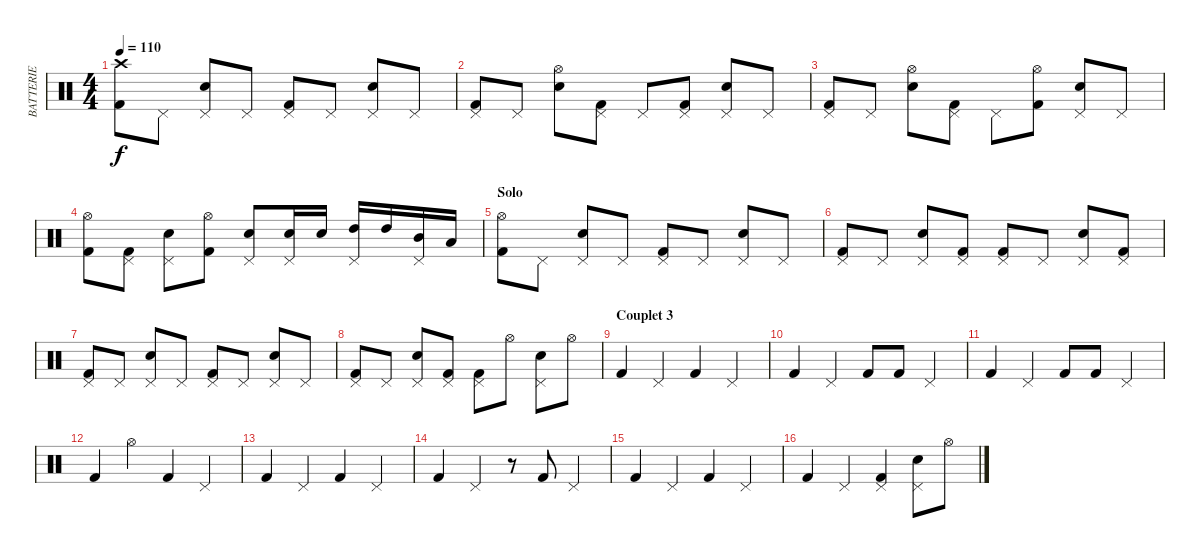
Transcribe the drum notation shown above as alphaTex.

\track ("BATTERIE" "BATTERIE") {instrument percussion}
\staff {score}
\articulation defaults
\ts (4 4)
\tempo 110
\clef neutral
\ks c
("Crash high (hit)" "Kick (hit) 2").8{dy f} "Pedal Hi-Hat (hit)".8 ("Pedal Hi-Hat (hit)" "Snare (hit) 2").8 "Pedal Hi-Hat (hit)".8 ("Pedal Hi-Hat (hit)" "Kick (hit) 2").8 "Pedal Hi-Hat (hit)".8 ("Pedal Hi-Hat (hit)" "Snare (hit) 2").8 "Pedal Hi-Hat (hit)".8 |
("Pedal Hi-Hat (hit)" "Kick (hit) 2").8 "Pedal Hi-Hat (hit)".8 ("Hi-Hat (open)" "Snare (hit) 2").8 ("Pedal Hi-Hat (hit)" "Kick (hit) 2").8 "Pedal Hi-Hat (hit)".8 ("Pedal Hi-Hat (hit)" "Kick (hit) 2").8 ("Pedal Hi-Hat (hit)" "Snare (hit) 2").8 "Pedal Hi-Hat (hit)".8 |
("Pedal Hi-Hat (hit)" "Kick (hit) 2").8 "Pedal Hi-Hat (hit)".8 ("Hi-Hat (open)" "Snare (hit) 2").8 ("Pedal Hi-Hat (hit)" "Kick (hit) 2").8 "Pedal Hi-Hat (hit)".8 ("Hi-Hat (open)" "Kick (hit) 2").8 ("Pedal Hi-Hat (hit)" "Snare (hit) 2").8 "Pedal Hi-Hat (hit)".8 |
("Hi-Hat (open)" "Kick (hit) 2").8 ("Pedal Hi-Hat (hit)" "Kick (hit) 2").8 ("Pedal Hi-Hat (hit)" "Snare (hit) 2").8 ("Hi-Hat (open)" "Kick (hit) 2").8 ("Pedal Hi-Hat (hit)" "Snare (hit) 2").8 ("Pedal Hi-Hat (hit)" "Snare (hit) 2").16 "Snare (hit) 2".16 ("Pedal Hi-Hat (hit)" "High Tom (hit)").16 "High Tom (hit)".16 ("Pedal Hi-Hat (hit)" "Mid Tom (hit)").16 "Low Tom (hit)".16 |
\section ("" "Solo")
("Hi-Hat (open)" "Kick (hit) 2").8 "Pedal Hi-Hat (hit)".8 ("Pedal Hi-Hat (hit)" "Snare (hit) 2").8 "Pedal Hi-Hat (hit)".8 ("Pedal Hi-Hat (hit)" "Kick (hit) 2").8 "Pedal Hi-Hat (hit)".8 ("Pedal Hi-Hat (hit)" "Snare (hit) 2").8 "Pedal Hi-Hat (hit)".8 |
("Pedal Hi-Hat (hit)" "Kick (hit) 2").8 "Pedal Hi-Hat (hit)".8 ("Pedal Hi-Hat (hit)" "Snare (hit) 2").8 ("Pedal Hi-Hat (hit)" "Kick (hit) 2").8 ("Pedal Hi-Hat (hit)" "Kick (hit) 2").8 "Pedal Hi-Hat (hit)".8 ("Pedal Hi-Hat (hit)" "Snare (hit) 2").8 ("Pedal Hi-Hat (hit)" "Kick (hit) 2").8 |
("Pedal Hi-Hat (hit)" "Kick (hit) 2").8 "Pedal Hi-Hat (hit)".8 ("Pedal Hi-Hat (hit)" "Snare (hit) 2").8 "Pedal Hi-Hat (hit)".8 ("Pedal Hi-Hat (hit)" "Kick (hit) 2").8 "Pedal Hi-Hat (hit)".8 ("Pedal Hi-Hat (hit)" "Snare (hit) 2").8 "Pedal Hi-Hat (hit)".8 |
("Pedal Hi-Hat (hit)" "Kick (hit) 2").8 "Pedal Hi-Hat (hit)".8 ("Pedal Hi-Hat (hit)" "Snare (hit) 2").8 ("Pedal Hi-Hat (hit)" "Kick (hit) 2").8 ("Pedal Hi-Hat (hit)" "Kick (hit) 2").8 "Hi-Hat (open)".8 ("Pedal Hi-Hat (hit)" "Snare (hit) 2").8 "Hi-Hat (open)".8 |
\section ("" "Couplet 3")
"Kick (hit) 2".4 "Pedal Hi-Hat (hit)".4 "Kick (hit) 2".4 "Pedal Hi-Hat (hit)".4 |
"Kick (hit) 2".4 "Pedal Hi-Hat (hit)".4 "Kick (hit) 2".8 "Kick (hit) 2".8 "Pedal Hi-Hat (hit)".4 |
"Kick (hit) 2".4 "Pedal Hi-Hat (hit)".4 "Kick (hit) 2".8 "Kick (hit) 2".8 "Pedal Hi-Hat (hit)".4 |
"Kick (hit) 2".4 "Hi-Hat (open)".4 "Kick (hit) 2".4 "Pedal Hi-Hat (hit)".4 |
"Kick (hit) 2".4 "Pedal Hi-Hat (hit)".4 "Kick (hit) 2".4 "Pedal Hi-Hat (hit)".4 |
"Kick (hit) 2".4 "Pedal Hi-Hat (hit)".4 r.8 "Kick (hit) 2".8 "Pedal Hi-Hat (hit)".4 |
"Kick (hit) 2".4 "Pedal Hi-Hat (hit)".4 "Kick (hit) 2".4 "Pedal Hi-Hat (hit)".4 |
"Kick (hit) 2".4 "Pedal Hi-Hat (hit)".4 ("Pedal Hi-Hat (hit)" "Kick (hit) 2").4 ("Pedal Hi-Hat (hit)" "Snare (hit) 2").8 "Hi-Hat (open)".8
